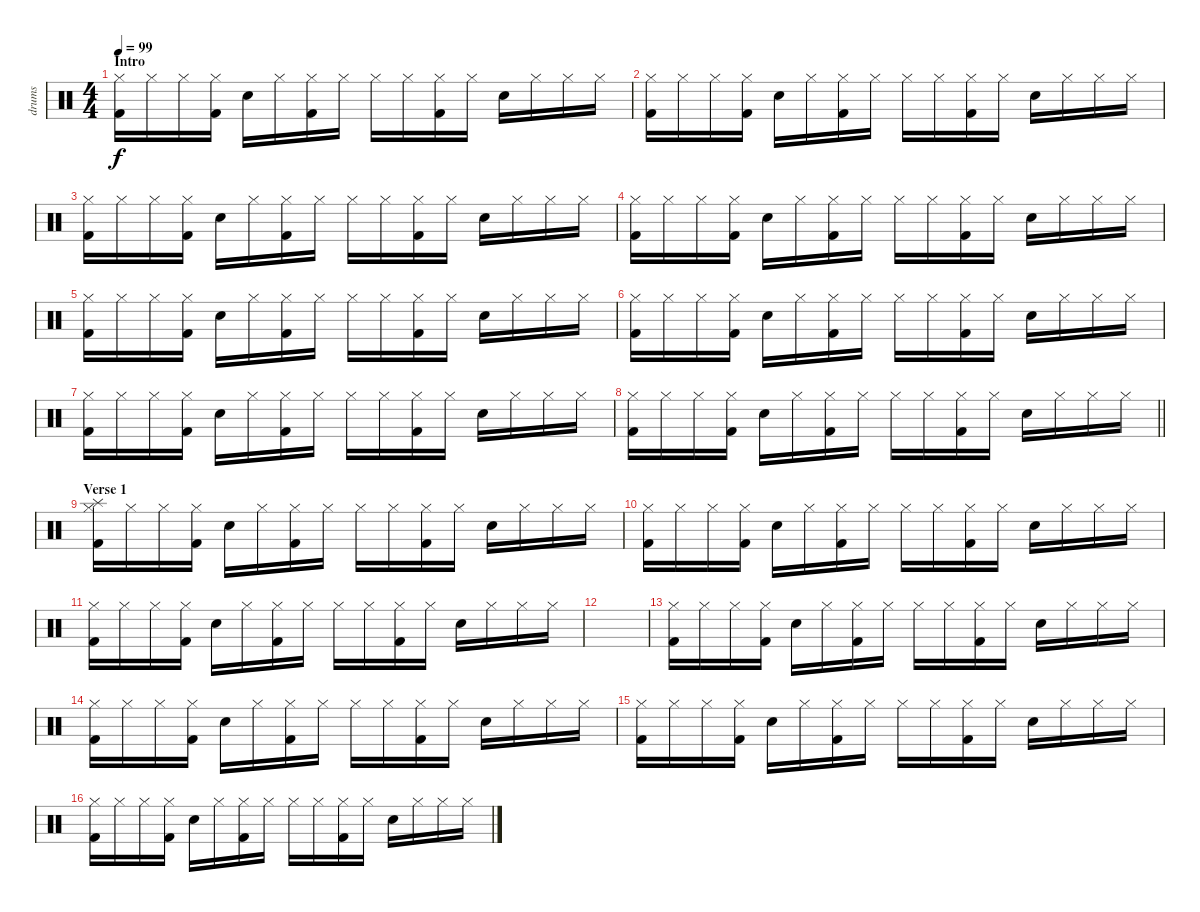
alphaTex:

\track ("drums" "drums") {instrument percussion}
\staff {score}
\articulation defaults
\ts (4 4)
\section ("" "Intro")
\tempo 99
\clef neutral
\ks c
("Hi-Hat (closed)" "Kick (hit) 2").16{dy f} "Hi-Hat (closed)".16 "Hi-Hat (closed)".16 ("Hi-Hat (closed)" "Kick (hit) 2").16 "Snare (hit) 2".16 "Hi-Hat (closed)".16 ("Hi-Hat (closed)" "Kick (hit) 2").16 "Hi-Hat (closed)".16 "Hi-Hat (closed)"{nh}.16 "Hi-Hat (closed)".16 ("Hi-Hat (closed)" "Kick (hit) 2").16 "Hi-Hat (closed)".16 "Snare (hit) 2".16 "Hi-Hat (closed)".16 "Hi-Hat (closed)".16 "Hi-Hat (closed)".16 |
("Hi-Hat (closed)" "Kick (hit) 2").16 "Hi-Hat (closed)".16 "Hi-Hat (closed)".16 ("Hi-Hat (closed)" "Kick (hit) 2").16 "Snare (hit) 2".16 "Hi-Hat (closed)".16 ("Hi-Hat (closed)" "Kick (hit) 2").16 "Hi-Hat (closed)".16 "Hi-Hat (closed)"{nh}.16 "Hi-Hat (closed)".16 ("Hi-Hat (closed)" "Kick (hit) 2").16 "Hi-Hat (closed)".16 "Snare (hit) 2".16 "Hi-Hat (closed)".16 "Hi-Hat (closed)".16 "Hi-Hat (closed)".16 |
("Hi-Hat (closed)" "Kick (hit) 2").16 "Hi-Hat (closed)".16 "Hi-Hat (closed)".16 ("Hi-Hat (closed)" "Kick (hit) 2").16 "Snare (hit) 2".16 "Hi-Hat (closed)".16 ("Hi-Hat (closed)" "Kick (hit) 2").16 "Hi-Hat (closed)".16 "Hi-Hat (closed)"{nh}.16 "Hi-Hat (closed)".16 ("Hi-Hat (closed)" "Kick (hit) 2").16 "Hi-Hat (closed)".16 "Snare (hit) 2".16 "Hi-Hat (closed)".16 "Hi-Hat (closed)".16 "Hi-Hat (closed)".16 |
("Hi-Hat (closed)" "Kick (hit) 2").16 "Hi-Hat (closed)".16 "Hi-Hat (closed)".16 ("Hi-Hat (closed)" "Kick (hit) 2").16 "Snare (hit) 2".16 "Hi-Hat (closed)".16 ("Hi-Hat (closed)" "Kick (hit) 2").16 "Hi-Hat (closed)".16 "Hi-Hat (closed)"{nh}.16 "Hi-Hat (closed)".16 ("Hi-Hat (closed)" "Kick (hit) 2").16 "Hi-Hat (closed)".16 "Snare (hit) 2".16 "Hi-Hat (closed)".16 "Hi-Hat (closed)".16 "Hi-Hat (closed)".16 |
("Hi-Hat (closed)" "Kick (hit) 2").16 "Hi-Hat (closed)".16 "Hi-Hat (closed)".16 ("Hi-Hat (closed)" "Kick (hit) 2").16 "Snare (hit) 2".16 "Hi-Hat (closed)".16 ("Hi-Hat (closed)" "Kick (hit) 2").16 "Hi-Hat (closed)".16 "Hi-Hat (closed)"{nh}.16 "Hi-Hat (closed)".16 ("Hi-Hat (closed)" "Kick (hit) 2").16 "Hi-Hat (closed)".16 "Snare (hit) 2".16 "Hi-Hat (closed)".16 "Hi-Hat (closed)".16 "Hi-Hat (closed)".16 |
("Hi-Hat (closed)" "Kick (hit) 2").16 "Hi-Hat (closed)".16 "Hi-Hat (closed)".16 ("Hi-Hat (closed)" "Kick (hit) 2").16 "Snare (hit) 2".16 "Hi-Hat (closed)".16 ("Hi-Hat (closed)" "Kick (hit) 2").16 "Hi-Hat (closed)".16 "Hi-Hat (closed)"{nh}.16 "Hi-Hat (closed)".16 ("Hi-Hat (closed)" "Kick (hit) 2").16 "Hi-Hat (closed)".16 "Snare (hit) 2".16 "Hi-Hat (closed)".16 "Hi-Hat (closed)".16 "Hi-Hat (closed)".16 |
("Hi-Hat (closed)" "Kick (hit) 2").16 "Hi-Hat (closed)".16 "Hi-Hat (closed)".16 ("Hi-Hat (closed)" "Kick (hit) 2").16 "Snare (hit) 2".16 "Hi-Hat (closed)".16 ("Hi-Hat (closed)" "Kick (hit) 2").16 "Hi-Hat (closed)".16 "Hi-Hat (closed)"{nh}.16 "Hi-Hat (closed)".16 ("Hi-Hat (closed)" "Kick (hit) 2").16 "Hi-Hat (closed)".16 "Snare (hit) 2".16 "Hi-Hat (closed)".16 "Hi-Hat (closed)".16 "Hi-Hat (closed)".16 |
\barLineRight lightlight
("Hi-Hat (closed)" "Kick (hit) 2").16 "Hi-Hat (closed)".16 "Hi-Hat (closed)".16 ("Hi-Hat (closed)" "Kick (hit) 2").16 "Snare (hit) 2".16 "Hi-Hat (closed)".16 ("Hi-Hat (closed)" "Kick (hit) 2").16 "Hi-Hat (closed)".16 "Hi-Hat (closed)"{nh}.16 "Hi-Hat (closed)".16 ("Hi-Hat (closed)" "Kick (hit) 2").16 "Hi-Hat (closed)".16 "Snare (hit) 2".16 "Hi-Hat (closed)".16 "Hi-Hat (closed)".16 "Hi-Hat (closed)".16 |
\section ("" "Verse 1")
("Hi-Hat (closed)" "Kick (hit) 2" "Splash (hit)").16 "Hi-Hat (closed)".16 "Hi-Hat (closed)".16 ("Hi-Hat (closed)" "Kick (hit) 2").16 "Snare (hit) 2".16 "Hi-Hat (closed)".16 ("Hi-Hat (closed)" "Kick (hit) 2").16 "Hi-Hat (closed)".16 "Hi-Hat (closed)"{nh}.16 "Hi-Hat (closed)".16 ("Hi-Hat (closed)" "Kick (hit) 2").16 "Hi-Hat (closed)".16 "Snare (hit) 2".16 "Hi-Hat (closed)".16 "Hi-Hat (closed)".16 "Hi-Hat (closed)".16 |
("Hi-Hat (closed)" "Kick (hit) 2").16 "Hi-Hat (closed)".16 "Hi-Hat (closed)".16 ("Hi-Hat (closed)" "Kick (hit) 2").16 "Snare (hit) 2".16 "Hi-Hat (closed)".16 ("Hi-Hat (closed)" "Kick (hit) 2").16 "Hi-Hat (closed)".16 "Hi-Hat (closed)"{nh}.16 "Hi-Hat (closed)".16 ("Hi-Hat (closed)" "Kick (hit) 2").16 "Hi-Hat (closed)".16 "Snare (hit) 2".16 "Hi-Hat (closed)".16 "Hi-Hat (closed)".16 "Hi-Hat (closed)".16 |
("Hi-Hat (closed)" "Kick (hit) 2").16 "Hi-Hat (closed)".16 "Hi-Hat (closed)".16 ("Hi-Hat (closed)" "Kick (hit) 2").16 "Snare (hit) 2".16 "Hi-Hat (closed)".16 ("Hi-Hat (closed)" "Kick (hit) 2").16 "Hi-Hat (closed)".16 "Hi-Hat (closed)"{nh}.16 "Hi-Hat (closed)".16 ("Hi-Hat (closed)" "Kick (hit) 2").16 "Hi-Hat (closed)".16 "Snare (hit) 2".16 "Hi-Hat (closed)".16 "Hi-Hat (closed)".16 "Hi-Hat (closed)".16 |
|
("Hi-Hat (closed)" "Kick (hit) 2").16 "Hi-Hat (closed)".16 "Hi-Hat (closed)".16 ("Hi-Hat (closed)" "Kick (hit) 2").16 "Snare (hit) 2".16 "Hi-Hat (closed)".16 ("Hi-Hat (closed)" "Kick (hit) 2").16 "Hi-Hat (closed)".16 "Hi-Hat (closed)"{nh}.16 "Hi-Hat (closed)".16 ("Hi-Hat (closed)" "Kick (hit) 2").16 "Hi-Hat (closed)".16 "Snare (hit) 2".16 "Hi-Hat (closed)".16 "Hi-Hat (closed)".16 "Hi-Hat (closed)".16 |
("Hi-Hat (closed)" "Kick (hit) 2").16 "Hi-Hat (closed)".16 "Hi-Hat (closed)".16 ("Hi-Hat (closed)" "Kick (hit) 2").16 "Snare (hit) 2".16 "Hi-Hat (closed)".16 ("Hi-Hat (closed)" "Kick (hit) 2").16 "Hi-Hat (closed)".16 "Hi-Hat (closed)"{nh}.16 "Hi-Hat (closed)".16 ("Hi-Hat (closed)" "Kick (hit) 2").16 "Hi-Hat (closed)".16 "Snare (hit) 2".16 "Hi-Hat (closed)".16 "Hi-Hat (closed)".16 "Hi-Hat (closed)".16 |
("Hi-Hat (closed)" "Kick (hit) 2").16 "Hi-Hat (closed)".16 "Hi-Hat (closed)".16 ("Hi-Hat (closed)" "Kick (hit) 2").16 "Snare (hit) 2".16 "Hi-Hat (closed)".16 ("Hi-Hat (closed)" "Kick (hit) 2").16 "Hi-Hat (closed)".16 "Hi-Hat (closed)"{nh}.16 "Hi-Hat (closed)".16 ("Hi-Hat (closed)" "Kick (hit) 2").16 "Hi-Hat (closed)".16 "Snare (hit) 2".16 "Hi-Hat (closed)".16 "Hi-Hat (closed)".16 "Hi-Hat (closed)".16 |
("Hi-Hat (closed)" "Kick (hit) 2").16 "Hi-Hat (closed)".16 "Hi-Hat (closed)".16 ("Hi-Hat (closed)" "Kick (hit) 2").16 "Snare (hit) 2".16 "Hi-Hat (closed)".16 ("Hi-Hat (closed)" "Kick (hit) 2").16 "Hi-Hat (closed)".16 "Hi-Hat (closed)"{nh}.16 "Hi-Hat (closed)".16 ("Hi-Hat (closed)" "Kick (hit) 2").16 "Hi-Hat (closed)".16 "Snare (hit) 2".16 "Hi-Hat (closed)".16 "Hi-Hat (closed)".16 "Hi-Hat (closed)".16
